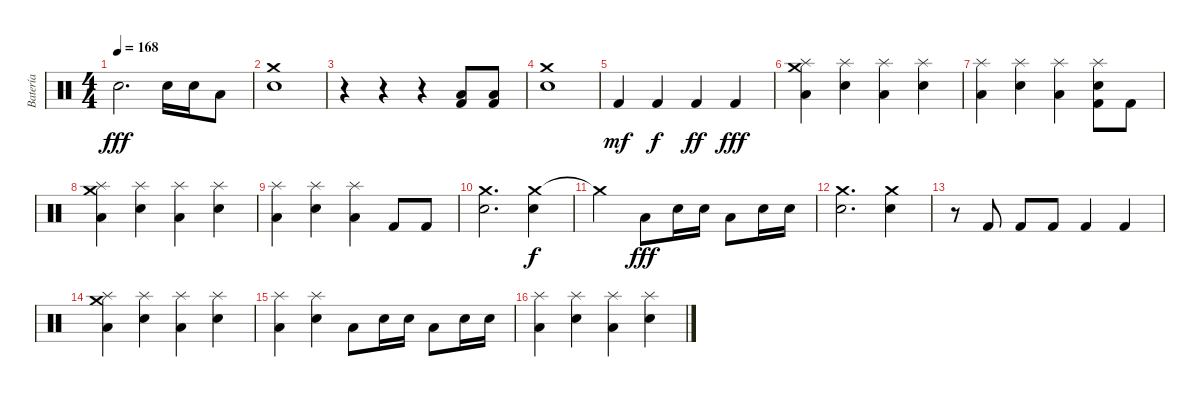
\track ("Batería" "Batería") {instrument percussion}
\staff {score}
\articulation defaults
\ts (4 4)
\tempo 168
\clef neutral
\ks c "Snare (hit) 2".2{d dy fff} "Electric Snare (hit)".16 "Electric Snare (hit)".16 "Low Floor Tom (hit)".8
|
("Crash medium (hit)" "Snare (hit) 2").1 |
r.4 r.4 r.4 ("Kick (hit) 2" "Low Floor Tom (hit)").8 ("Kick (hit) 2" "Low Floor Tom (hit)").8 |
("Crash medium (hit)" "Snare (hit) 2").1 |
"Kick (hit) 2".4{dy mf} "Kick (hit) 2".4{dy f} "Kick (hit) 2".4{dy ff} "Kick (hit) 2".4{dy fff} |
("Crash medium (hit)" "Splash (hit)" "Low Floor Tom (hit)").4 ("Splash (hit)" "Electric Snare (hit)").4 ("Splash (hit)" "Low Floor Tom (hit)").4 ("Splash (hit)" "Electric Snare (hit)").4 |
("Splash (hit)" "Low Floor Tom (hit)").4 ("Splash (hit)" "Electric Snare (hit)").4 ("Splash (hit)" "Low Floor Tom (hit)").4 ("Splash (hit)" "Electric Snare (hit)" "Kick (hit) 2").8 "Kick (hit) 2".8 |
("Crash medium (hit)" "Splash (hit)" "Low Floor Tom (hit)").4 ("Splash (hit)" "Electric Snare (hit)").4 ("Splash (hit)" "Low Floor Tom (hit)").4 ("Splash (hit)" "Electric Snare (hit)").4 |
("Splash (hit)" "Low Floor Tom (hit)").4 ("Splash (hit)" "Electric Snare (hit)").4 ("Splash (hit)" "Low Floor Tom (hit)").4 "Kick (hit) 2".8 "Kick (hit) 2".8 |
("Crash medium (hit)" "Snare (hit) 2").2{d} ("Crash medium (hit)" "Snare (hit) 2").4{dy f} |
"Crash medium (hit)"{t}.2 "Low Floor Tom (hit)".8{dy fff} "Electric Snare (hit)".16 "Electric Snare (hit)".16 "Low Floor Tom (hit)".8 "Electric Snare (hit)".16 "Electric Snare (hit)".16 |
("Crash medium (hit)" "Snare (hit) 2").2{d} ("Crash medium (hit)" "Snare (hit) 2").4 |
r.8 "Kick (hit) 2".8 "Kick (hit) 2".8 "Kick (hit) 2".8 "Kick (hit) 2".4 "Kick (hit) 2".4 |
("Crash medium (hit)" "Splash (hit)" "Low Floor Tom (hit)").4 ("Splash (hit)" "Electric Snare (hit)").4 ("Splash (hit)" "Low Floor Tom (hit)").4 ("Splash (hit)" "Electric Snare (hit)").4 |
("Splash (hit)" "Low Floor Tom (hit)").4 ("Splash (hit)" "Electric Snare (hit)").4 "Low Floor Tom (hit)".8 "Electric Snare (hit)".16 "Electric Snare (hit)".16 "Low Floor Tom (hit)".8 "Electric Snare (hit)".16 "Electric Snare (hit)".16 |
("Splash (hit)" "Low Floor Tom (hit)").4 ("Splash (hit)" "Electric Snare (hit)").4 ("Splash (hit)" "Low Floor Tom (hit)").4 ("Splash (hit)" "Electric Snare (hit)").4
